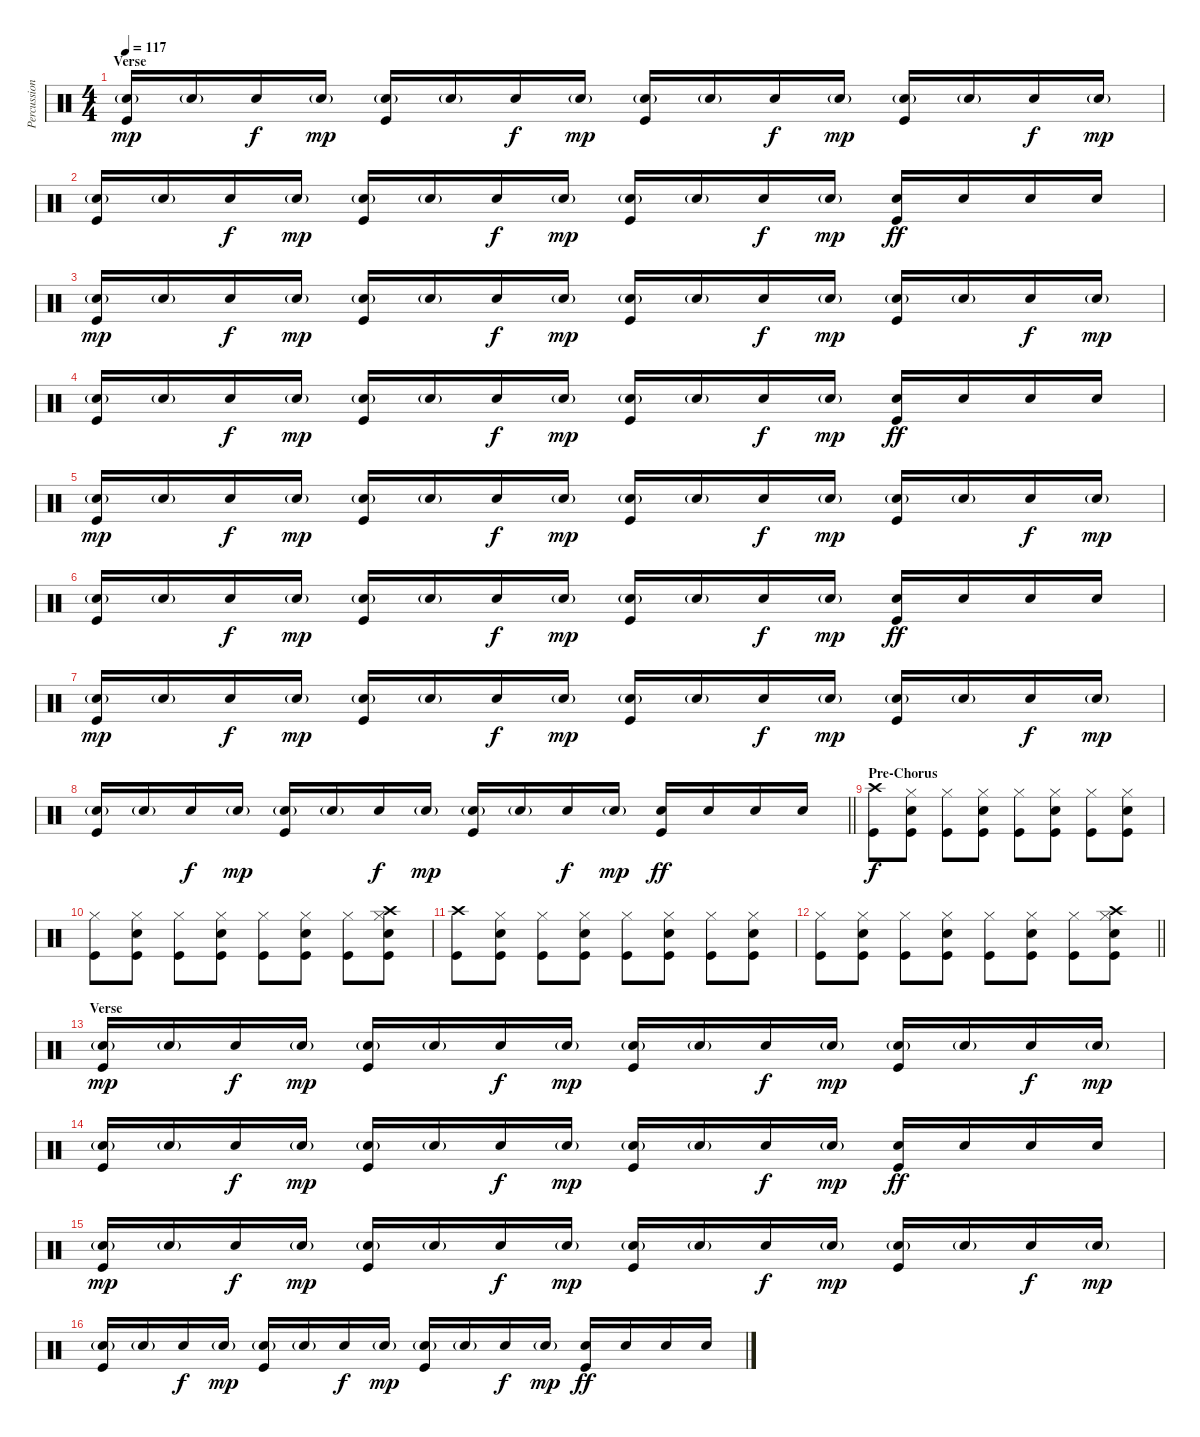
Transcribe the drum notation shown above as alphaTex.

\track ("Percussion" "Percussion") {instrument percussion}
\staff {score}
\articulation defaults
\ts (4 4)
\section ("" "Verse")
\tempo 117
\clef neutral
\ks c
("Snare (hit) 2"{g} "Kick (hit)").16{dy mp} "Snare (hit) 2"{g}.16 "Snare (hit) 2".16{dy f} "Snare (hit) 2"{g}.16{dy mp} ("Snare (hit) 2"{g} "Kick (hit)").16 "Snare (hit) 2"{g}.16 "Snare (hit) 2".16{dy f} "Snare (hit) 2"{g}.16{dy mp} ("Snare (hit) 2"{g} "Kick (hit)").16 "Snare (hit) 2"{g}.16 "Snare (hit) 2".16{dy f} "Snare (hit) 2"{g}.16{dy mp} ("Snare (hit) 2"{g} "Kick (hit)").16 "Snare (hit) 2"{g}.16 "Snare (hit) 2".16{dy f} "Snare (hit) 2"{g}.16{dy mp} |
("Snare (hit) 2"{g} "Kick (hit)").16 "Snare (hit) 2"{g}.16 "Snare (hit) 2".16{dy f} "Snare (hit) 2"{g}.16{dy mp} ("Snare (hit) 2"{g} "Kick (hit)").16 "Snare (hit) 2"{g}.16 "Snare (hit) 2".16{dy f} "Snare (hit) 2"{g}.16{dy mp} ("Snare (hit) 2"{g} "Kick (hit)").16 "Snare (hit) 2"{g}.16 "Snare (hit) 2".16{dy f} "Snare (hit) 2"{g}.16{dy mp} ("Snare (hit) 2" "Kick (hit)").16{dy ff} "Snare (hit) 2".16 "Snare (hit) 2".16 "Snare (hit) 2".16 |
("Snare (hit) 2"{g} "Kick (hit)").16{dy mp} "Snare (hit) 2"{g}.16 "Snare (hit) 2".16{dy f} "Snare (hit) 2"{g}.16{dy mp} ("Snare (hit) 2"{g} "Kick (hit)").16 "Snare (hit) 2"{g}.16 "Snare (hit) 2".16{dy f} "Snare (hit) 2"{g}.16{dy mp} ("Snare (hit) 2"{g} "Kick (hit)").16 "Snare (hit) 2"{g}.16 "Snare (hit) 2".16{dy f} "Snare (hit) 2"{g}.16{dy mp} ("Snare (hit) 2"{g} "Kick (hit)").16 "Snare (hit) 2"{g}.16 "Snare (hit) 2".16{dy f} "Snare (hit) 2"{g}.16{dy mp} |
("Snare (hit) 2"{g} "Kick (hit)").16 "Snare (hit) 2"{g}.16 "Snare (hit) 2".16{dy f} "Snare (hit) 2"{g}.16{dy mp} ("Snare (hit) 2"{g} "Kick (hit)").16 "Snare (hit) 2"{g}.16 "Snare (hit) 2".16{dy f} "Snare (hit) 2"{g}.16{dy mp} ("Snare (hit) 2"{g} "Kick (hit)").16 "Snare (hit) 2"{g}.16 "Snare (hit) 2".16{dy f} "Snare (hit) 2"{g}.16{dy mp} ("Snare (hit) 2" "Kick (hit)").16{dy ff} "Snare (hit) 2".16 "Snare (hit) 2".16 "Snare (hit) 2".16 |
("Snare (hit) 2"{g} "Kick (hit)").16{dy mp} "Snare (hit) 2"{g}.16 "Snare (hit) 2".16{dy f} "Snare (hit) 2"{g}.16{dy mp} ("Snare (hit) 2"{g} "Kick (hit)").16 "Snare (hit) 2"{g}.16 "Snare (hit) 2".16{dy f} "Snare (hit) 2"{g}.16{dy mp} ("Snare (hit) 2"{g} "Kick (hit)").16 "Snare (hit) 2"{g}.16 "Snare (hit) 2".16{dy f} "Snare (hit) 2"{g}.16{dy mp} ("Snare (hit) 2"{g} "Kick (hit)").16 "Snare (hit) 2"{g}.16 "Snare (hit) 2".16{dy f} "Snare (hit) 2"{g}.16{dy mp} |
("Snare (hit) 2"{g} "Kick (hit)").16 "Snare (hit) 2"{g}.16 "Snare (hit) 2".16{dy f} "Snare (hit) 2"{g}.16{dy mp} ("Snare (hit) 2"{g} "Kick (hit)").16 "Snare (hit) 2"{g}.16 "Snare (hit) 2".16{dy f} "Snare (hit) 2"{g}.16{dy mp} ("Snare (hit) 2"{g} "Kick (hit)").16 "Snare (hit) 2"{g}.16 "Snare (hit) 2".16{dy f} "Snare (hit) 2"{g}.16{dy mp} ("Snare (hit) 2" "Kick (hit)").16{dy ff} "Snare (hit) 2".16 "Snare (hit) 2".16 "Snare (hit) 2".16 |
("Snare (hit) 2"{g} "Kick (hit)").16{dy mp} "Snare (hit) 2"{g}.16 "Snare (hit) 2".16{dy f} "Snare (hit) 2"{g}.16{dy mp} ("Snare (hit) 2"{g} "Kick (hit)").16 "Snare (hit) 2"{g}.16 "Snare (hit) 2".16{dy f} "Snare (hit) 2"{g}.16{dy mp} ("Snare (hit) 2"{g} "Kick (hit)").16 "Snare (hit) 2"{g}.16 "Snare (hit) 2".16{dy f} "Snare (hit) 2"{g}.16{dy mp} ("Snare (hit) 2"{g} "Kick (hit)").16 "Snare (hit) 2"{g}.16 "Snare (hit) 2".16{dy f} "Snare (hit) 2"{g}.16{dy mp} |
\barLineRight lightlight
("Snare (hit) 2"{g} "Kick (hit)").16 "Snare (hit) 2"{g}.16 "Snare (hit) 2".16{dy f} "Snare (hit) 2"{g}.16{dy mp} ("Snare (hit) 2"{g} "Kick (hit)").16 "Snare (hit) 2"{g}.16 "Snare (hit) 2".16{dy f} "Snare (hit) 2"{g}.16{dy mp} ("Snare (hit) 2"{g} "Kick (hit)").16 "Snare (hit) 2"{g}.16 "Snare (hit) 2".16{dy f} "Snare (hit) 2"{g}.16{dy mp} ("Snare (hit) 2" "Kick (hit)").16{dy ff} "Snare (hit) 2".16 "Snare (hit) 2".16 "Snare (hit) 2".16 |
\section ("" "Pre-Chorus")
("Crash high (hit)" "Kick (hit)").8{dy f} ("Hi-Hat (closed)" "Snare (hit) 2" "Kick (hit)").8 ("Hi-Hat (closed)" "Kick (hit)").8 ("Hi-Hat (closed)" "Snare (hit) 2" "Kick (hit)").8 ("Hi-Hat (closed)" "Kick (hit)").8 ("Hi-Hat (closed)" "Snare (hit) 2" "Kick (hit)").8 ("Hi-Hat (closed)" "Kick (hit)").8 ("Hi-Hat (closed)" "Snare (hit) 2" "Kick (hit)").8 |
("Hi-Hat (closed)" "Kick (hit)").8 ("Hi-Hat (closed)" "Snare (hit) 2" "Kick (hit)").8 ("Hi-Hat (closed)" "Kick (hit)").8 ("Hi-Hat (closed)" "Snare (hit) 2" "Kick (hit)").8 ("Hi-Hat (closed)" "Kick (hit)").8 ("Hi-Hat (closed)" "Snare (hit) 2" "Kick (hit)").8 ("Hi-Hat (closed)" "Kick (hit)").8 ("Crash high (hit)" "Hi-Hat (closed)" "Snare (hit) 2" "Kick (hit)").8 |
("Crash high (hit)" "Kick (hit)").8 ("Hi-Hat (closed)" "Snare (hit) 2" "Kick (hit)").8 ("Hi-Hat (closed)" "Kick (hit)").8 ("Hi-Hat (closed)" "Snare (hit) 2" "Kick (hit)").8 ("Hi-Hat (closed)" "Kick (hit)").8 ("Hi-Hat (closed)" "Snare (hit) 2" "Kick (hit)").8 ("Hi-Hat (closed)" "Kick (hit)").8 ("Hi-Hat (closed)" "Snare (hit) 2" "Kick (hit)").8 |
\barLineRight lightlight
("Hi-Hat (closed)" "Kick (hit)").8 ("Hi-Hat (closed)" "Snare (hit) 2" "Kick (hit)").8 ("Hi-Hat (closed)" "Kick (hit)").8 ("Hi-Hat (closed)" "Snare (hit) 2" "Kick (hit)").8 ("Hi-Hat (closed)" "Kick (hit)").8 ("Hi-Hat (closed)" "Snare (hit) 2" "Kick (hit)").8 ("Hi-Hat (closed)" "Kick (hit)").8 ("Crash high (hit)" "Hi-Hat (closed)" "Snare (hit) 2" "Kick (hit)").8 |
\section ("" "Verse")
("Snare (hit) 2"{g} "Kick (hit)").16{dy mp} "Snare (hit) 2"{g}.16 "Snare (hit) 2".16{dy f} "Snare (hit) 2"{g}.16{dy mp} ("Snare (hit) 2"{g} "Kick (hit)").16 "Snare (hit) 2"{g}.16 "Snare (hit) 2".16{dy f} "Snare (hit) 2"{g}.16{dy mp} ("Snare (hit) 2"{g} "Kick (hit)").16 "Snare (hit) 2"{g}.16 "Snare (hit) 2".16{dy f} "Snare (hit) 2"{g}.16{dy mp} ("Snare (hit) 2"{g} "Kick (hit)").16 "Snare (hit) 2"{g}.16 "Snare (hit) 2".16{dy f} "Snare (hit) 2"{g}.16{dy mp} |
("Snare (hit) 2"{g} "Kick (hit)").16 "Snare (hit) 2"{g}.16 "Snare (hit) 2".16{dy f} "Snare (hit) 2"{g}.16{dy mp} ("Snare (hit) 2"{g} "Kick (hit)").16 "Snare (hit) 2"{g}.16 "Snare (hit) 2".16{dy f} "Snare (hit) 2"{g}.16{dy mp} ("Snare (hit) 2"{g} "Kick (hit)").16 "Snare (hit) 2"{g}.16 "Snare (hit) 2".16{dy f} "Snare (hit) 2"{g}.16{dy mp} ("Snare (hit) 2" "Kick (hit)").16{dy ff} "Snare (hit) 2".16 "Snare (hit) 2".16 "Snare (hit) 2".16 |
("Snare (hit) 2"{g} "Kick (hit)").16{dy mp} "Snare (hit) 2"{g}.16 "Snare (hit) 2".16{dy f} "Snare (hit) 2"{g}.16{dy mp} ("Snare (hit) 2"{g} "Kick (hit)").16 "Snare (hit) 2"{g}.16 "Snare (hit) 2".16{dy f} "Snare (hit) 2"{g}.16{dy mp} ("Snare (hit) 2"{g} "Kick (hit)").16 "Snare (hit) 2"{g}.16 "Snare (hit) 2".16{dy f} "Snare (hit) 2"{g}.16{dy mp} ("Snare (hit) 2"{g} "Kick (hit)").16 "Snare (hit) 2"{g}.16 "Snare (hit) 2".16{dy f} "Snare (hit) 2"{g}.16{dy mp} |
("Snare (hit) 2"{g} "Kick (hit)").16 "Snare (hit) 2"{g}.16 "Snare (hit) 2".16{dy f} "Snare (hit) 2"{g}.16{dy mp} ("Snare (hit) 2"{g} "Kick (hit)").16 "Snare (hit) 2"{g}.16 "Snare (hit) 2".16{dy f} "Snare (hit) 2"{g}.16{dy mp} ("Snare (hit) 2"{g} "Kick (hit)").16 "Snare (hit) 2"{g}.16 "Snare (hit) 2".16{dy f} "Snare (hit) 2"{g}.16{dy mp} ("Snare (hit) 2" "Kick (hit)").16{dy ff} "Snare (hit) 2".16 "Snare (hit) 2".16 "Snare (hit) 2".16
